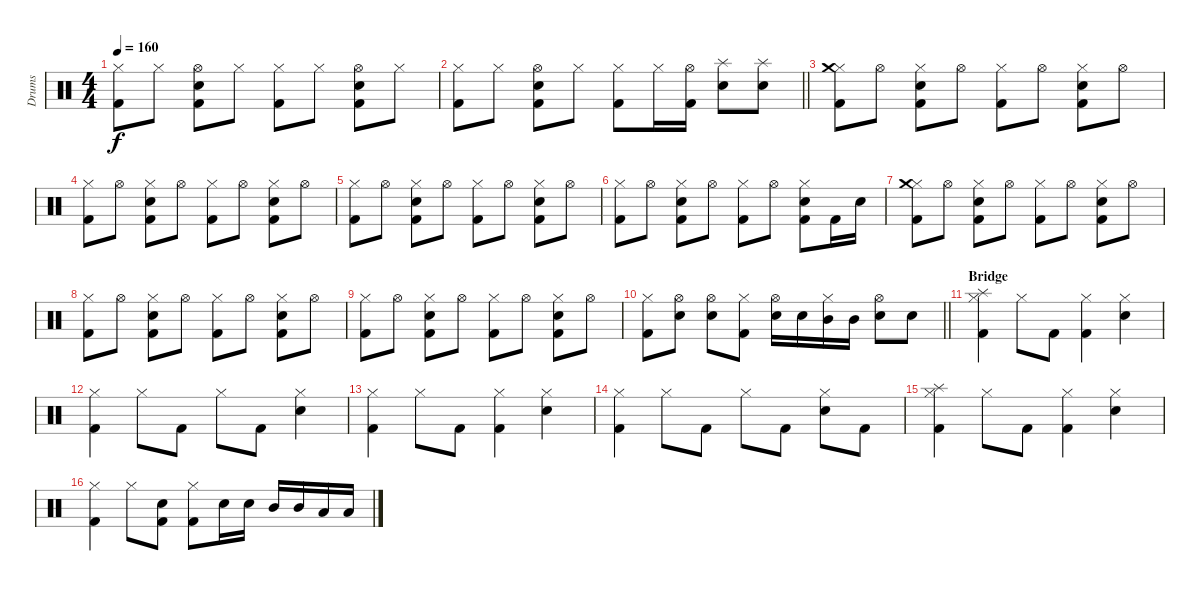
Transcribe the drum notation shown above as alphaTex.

\track ("Drums" "Drums") {instrument percussion}
\staff {score}
\articulation defaults
\ts (4 4)
\tempo 160
\clef neutral
\ks c
("Hi-Hat (closed)" "Kick (hit) 2").8{dy f} "Hi-Hat (closed)".8 ("Hi-Hat (open)" "Snare (hit) 2" "Kick (hit) 2").8 "Hi-Hat (closed)".8 ("Hi-Hat (closed)" "Kick (hit) 2").8 "Hi-Hat (closed)".8 ("Hi-Hat (open)" "Snare (hit) 2" "Kick (hit) 2").8 "Hi-Hat (closed)".8 |
\barLineRight lightlight
("Hi-Hat (closed)" "Kick (hit) 2").8 "Hi-Hat (closed)".8 ("Hi-Hat (open)" "Snare (hit) 2" "Kick (hit) 2").8 "Hi-Hat (closed)".8 ("Hi-Hat (closed)" "Kick (hit) 2").8 "Hi-Hat (closed)".16 ("Hi-Hat (open)" "Kick (hit) 2").16 ("Splash (hit)" "Snare (hit) 2").8 ("Splash (hit)" "Snare (hit) 2").8 |
("Hi-Hat (closed)" "Crash medium (hit)" "Kick (hit) 2").8 "Hi-Hat (open)".8 ("Hi-Hat (closed)" "Snare (hit) 2" "Kick (hit) 2").8 "Hi-Hat (open)".8 ("Hi-Hat (closed)" "Kick (hit) 2").8 "Hi-Hat (open)".8 ("Hi-Hat (closed)" "Snare (hit) 2" "Kick (hit) 2").8 "Hi-Hat (open)".8 |
("Hi-Hat (closed)" "Kick (hit) 2").8 "Hi-Hat (open)".8 ("Hi-Hat (closed)" "Snare (hit) 2" "Kick (hit) 2").8 "Hi-Hat (open)".8 ("Hi-Hat (closed)" "Kick (hit) 2").8 "Hi-Hat (open)".8 ("Hi-Hat (closed)" "Snare (hit) 2" "Kick (hit) 2").8 "Hi-Hat (open)".8 |
("Hi-Hat (closed)" "Kick (hit) 2").8 "Hi-Hat (open)".8 ("Hi-Hat (closed)" "Snare (hit) 2" "Kick (hit) 2").8 "Hi-Hat (open)".8 ("Hi-Hat (closed)" "Kick (hit) 2").8 "Hi-Hat (open)".8 ("Hi-Hat (closed)" "Snare (hit) 2" "Kick (hit) 2").8 "Hi-Hat (open)".8 |
("Hi-Hat (closed)" "Kick (hit) 2").8 "Hi-Hat (open)".8 ("Hi-Hat (closed)" "Snare (hit) 2" "Kick (hit) 2").8 "Hi-Hat (open)".8 ("Hi-Hat (closed)" "Kick (hit) 2").8 "Hi-Hat (open)".8 ("Hi-Hat (closed)" "Snare (hit) 2" "Kick (hit) 2").8 "Kick (hit) 2".16 "Snare (hit) 2".16 |
("Hi-Hat (closed)" "Crash medium (hit)" "Kick (hit) 2").8 "Hi-Hat (open)".8 ("Hi-Hat (closed)" "Snare (hit) 2" "Kick (hit) 2").8 "Hi-Hat (open)".8 ("Hi-Hat (closed)" "Kick (hit) 2").8 "Hi-Hat (open)".8 ("Hi-Hat (closed)" "Snare (hit) 2" "Kick (hit) 2").8 "Hi-Hat (open)".8 |
("Hi-Hat (closed)" "Kick (hit) 2").8 "Hi-Hat (open)".8 ("Hi-Hat (closed)" "Snare (hit) 2" "Kick (hit) 2").8 "Hi-Hat (open)".8 ("Hi-Hat (closed)" "Kick (hit) 2").8 "Hi-Hat (open)".8 ("Hi-Hat (closed)" "Snare (hit) 2" "Kick (hit) 2").8 "Hi-Hat (open)".8 |
("Hi-Hat (closed)" "Kick (hit) 2").8 "Hi-Hat (open)".8 ("Hi-Hat (closed)" "Snare (hit) 2" "Kick (hit) 2").8 "Hi-Hat (open)".8 ("Hi-Hat (closed)" "Kick (hit) 2").8 "Hi-Hat (open)".8 ("Hi-Hat (closed)" "Snare (hit) 2" "Kick (hit) 2").8 "Hi-Hat (open)".8 |
\barLineRight lightlight
("Hi-Hat (closed)" "Kick (hit) 2").8 ("Hi-Hat (open)" "Snare (hit) 2").8 ("Hi-Hat (open)" "Snare (hit) 2").8 ("Hi-Hat (closed)" "Kick (hit) 2").8 ("Hi-Hat (open)" "Snare (hit) 2").16 "Snare (hit) 2".16 ("Hi-Hat (closed)" "Mid Tom (hit)").16 "Mid Tom (hit)".16 ("Hi-Hat (open)" "Snare (hit) 2").8 "Snare (hit) 2".8 |
\section ("" "Bridge")
("Hi-Hat (closed)" "Splash (hit)" "Kick (hit) 2").4 "Hi-Hat (closed)".8 "Kick (hit) 2".8 ("Hi-Hat (closed)" "Kick (hit) 2").4 ("Hi-Hat (closed)" "Snare (hit) 2").4 |
("Hi-Hat (closed)" "Kick (hit) 2").4 "Hi-Hat (closed)".8 "Kick (hit) 2".8 "Hi-Hat (closed)".8 "Kick (hit) 2".8 ("Hi-Hat (closed)" "Snare (hit) 2").4 |
("Hi-Hat (closed)" "Kick (hit) 2").4 "Hi-Hat (closed)".8 "Kick (hit) 2".8 ("Hi-Hat (closed)" "Kick (hit) 2").4 ("Hi-Hat (closed)" "Snare (hit) 2").4 |
("Hi-Hat (closed)" "Kick (hit) 2").4 "Hi-Hat (closed)".8 "Kick (hit) 2".8 "Hi-Hat (closed)".8 "Kick (hit) 2".8 ("Hi-Hat (closed)" "Snare (hit) 2").8 "Kick (hit) 2".8 |
("Hi-Hat (closed)" "Splash (hit)" "Kick (hit) 2").4 "Hi-Hat (closed)".8 "Kick (hit) 2".8 ("Hi-Hat (closed)" "Kick (hit) 2").4 ("Hi-Hat (closed)" "Snare (hit) 2").4 |
("Hi-Hat (closed)" "Kick (hit) 2").4 "Hi-Hat (closed)".8 ("Snare (hit) 2" "Kick (hit) 2").8 ("Hi-Hat (closed)" "Kick (hit) 2").8 "Snare (hit) 2".16 "Snare (hit) 2".16 "Mid Tom (hit)".16 "Mid Tom (hit)".16 "Low Tom (hit)".16 "Low Tom (hit)".16
